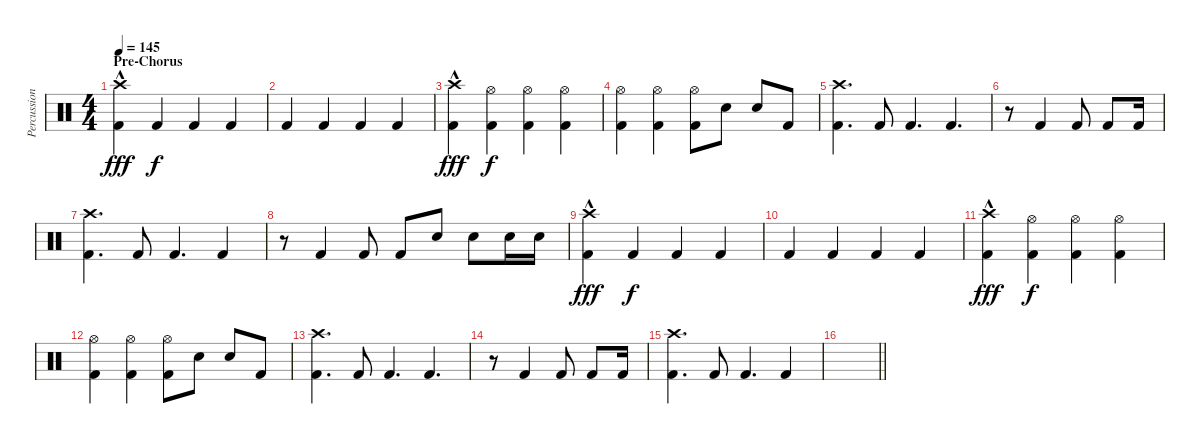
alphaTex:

\track ("Percussion" "Percussion") {instrument percussion}
\staff {score}
\articulation defaults
\ts (4 4)
\section ("" "Pre-Chorus")
\tempo 145
\clef neutral
\ks c
("Crash high (hit)"{hac} "Kick (hit) 2").4{dy fff} "Kick (hit) 2".4{dy f} "Kick (hit) 2".4 "Kick (hit) 2".4 |
"Kick (hit) 2".4 "Kick (hit) 2".4 "Kick (hit) 2".4 "Kick (hit) 2".4 |
("Crash high (hit)"{hac} "Kick (hit) 2").4{dy fff} ("Hi-Hat (open)" "Kick (hit) 2").4{dy f} ("Hi-Hat (open)" "Kick (hit) 2").4 ("Hi-Hat (open)" "Kick (hit) 2").4 |
("Hi-Hat (open)" "Kick (hit) 2").4 ("Hi-Hat (open)" "Kick (hit) 2").4 ("Hi-Hat (open)" "Kick (hit) 2").8 "Electric Snare (hit)".8 "Electric Snare (hit)".8 "Kick (hit) 2".8 |
("Crash high (hit)" "Kick (hit) 2").4{d} "Kick (hit) 2".8 "Kick (hit) 2".4{d} "Kick (hit) 2".4{d} |
r.8 "Kick (hit) 2".4 "Kick (hit) 2".8 "Kick (hit) 2".8 "Kick (hit) 2".16 |
("Crash high (hit)" "Kick (hit) 2").4{d} "Kick (hit) 2".8 "Kick (hit) 2".4{d} "Kick (hit) 2".4 |
r.8 "Kick (hit) 2".4 "Kick (hit) 2".8 "Kick (hit) 2".8 "Electric Snare (hit)".8 "Electric Snare (hit)".8 "Electric Snare (hit)".16 "Electric Snare (hit)".16 |
("Crash high (hit)"{hac} "Kick (hit) 2").4{dy fff} "Kick (hit) 2".4{dy f} "Kick (hit) 2".4 "Kick (hit) 2".4 |
"Kick (hit) 2".4 "Kick (hit) 2".4 "Kick (hit) 2".4 "Kick (hit) 2".4 |
("Crash high (hit)"{hac} "Kick (hit) 2").4{dy fff} ("Hi-Hat (open)" "Kick (hit) 2").4{dy f} ("Hi-Hat (open)" "Kick (hit) 2").4 ("Hi-Hat (open)" "Kick (hit) 2").4 |
("Hi-Hat (open)" "Kick (hit) 2").4 ("Hi-Hat (open)" "Kick (hit) 2").4 ("Hi-Hat (open)" "Kick (hit) 2").8 "Electric Snare (hit)".8 "Electric Snare (hit)".8 "Kick (hit) 2".8 |
("Crash high (hit)" "Kick (hit) 2").4{d} "Kick (hit) 2".8 "Kick (hit) 2".4{d} "Kick (hit) 2".4{d} |
r.8 "Kick (hit) 2".4 "Kick (hit) 2".8 "Kick (hit) 2".8 "Kick (hit) 2".16 |
("Crash high (hit)" "Kick (hit) 2").4{d} "Kick (hit) 2".8 "Kick (hit) 2".4{d} "Kick (hit) 2".4 |
\barLineRight lightlight
